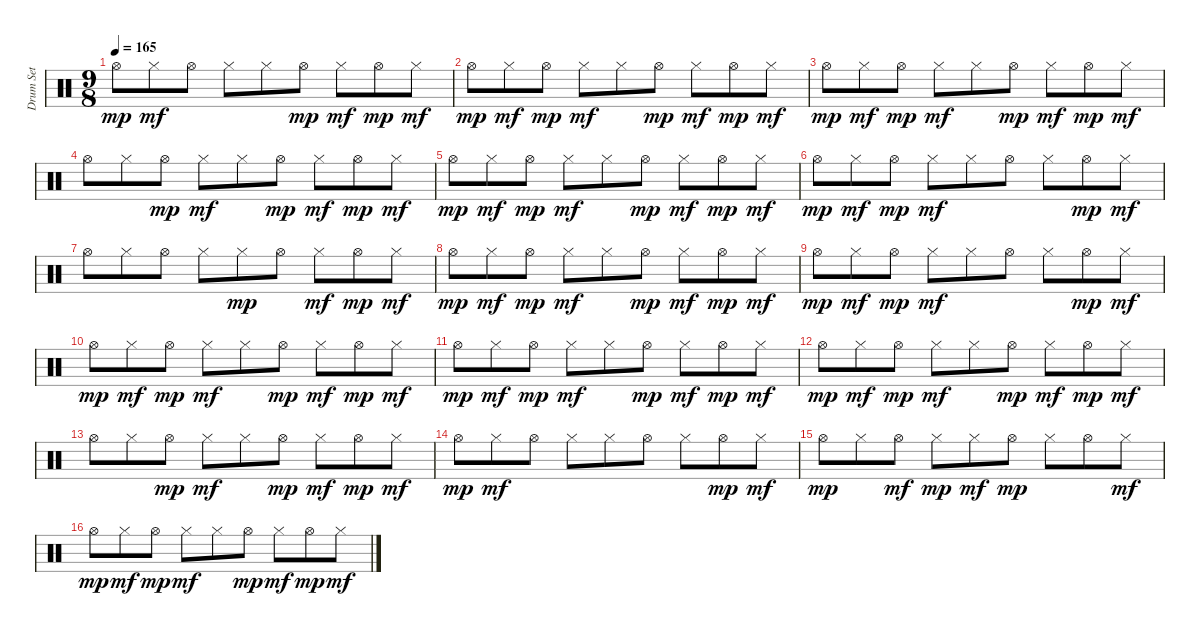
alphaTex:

\track ("Drum Set" "Drum Set") {instrument percussion}
\staff {score}
\articulation defaults
\ts (9 8)
\tempo 165
\clef neutral
\ks c "Hi-Hat (open)".8{dy mp} "Hi-Hat (closed)".8{dy mf} "Hi-Hat (open)".8 "Hi-Hat (closed)".8 "Hi-Hat (closed)".8 "Hi-Hat (open)".8{dy mp} "Hi-Hat (closed)".8{dy mf} "Hi-Hat (open)".8{dy mp} "Hi-Hat (closed)".8{dy mf}
|
"Hi-Hat (open)".8{dy mp} "Hi-Hat (closed)".8{dy mf} "Hi-Hat (open)".8{dy mp} "Hi-Hat (closed)".8{dy mf} "Hi-Hat (closed)".8 "Hi-Hat (open)".8{dy mp} "Hi-Hat (closed)".8{dy mf} "Hi-Hat (open)".8{dy mp} "Hi-Hat (closed)".8{dy mf} |
"Hi-Hat (open)".8{dy mp} "Hi-Hat (closed)".8{dy mf} "Hi-Hat (open)".8{dy mp} "Hi-Hat (closed)".8{dy mf} "Hi-Hat (closed)".8 "Hi-Hat (open)".8{dy mp} "Hi-Hat (closed)".8{dy mf} "Hi-Hat (open)".8{dy mp} "Hi-Hat (closed)".8{dy mf} |
"Hi-Hat (open)".8 "Hi-Hat (closed)".8 "Hi-Hat (open)".8{dy mp} "Hi-Hat (closed)".8{dy mf} "Hi-Hat (closed)".8 "Hi-Hat (open)".8{dy mp} "Hi-Hat (closed)".8{dy mf} "Hi-Hat (open)".8{dy mp} "Hi-Hat (closed)".8{dy mf} |
"Hi-Hat (open)".8{dy mp} "Hi-Hat (closed)".8{dy mf} "Hi-Hat (open)".8{dy mp} "Hi-Hat (closed)".8{dy mf} "Hi-Hat (closed)".8 "Hi-Hat (open)".8{dy mp} "Hi-Hat (closed)".8{dy mf} "Hi-Hat (open)".8{dy mp} "Hi-Hat (closed)".8{dy mf} |
"Hi-Hat (open)".8{dy mp} "Hi-Hat (closed)".8{dy mf} "Hi-Hat (open)".8{dy mp} "Hi-Hat (closed)".8{dy mf} "Hi-Hat (closed)".8 "Hi-Hat (open)".8 "Hi-Hat (closed)".8 "Hi-Hat (open)".8{dy mp} "Hi-Hat (closed)".8{dy mf} |
"Hi-Hat (open)".8 "Hi-Hat (closed)".8 "Hi-Hat (open)".8 "Hi-Hat (closed)".8 "Hi-Hat (closed)".8{dy mp} "Hi-Hat (open)".8 "Hi-Hat (closed)".8{dy mf} "Hi-Hat (open)".8{dy mp} "Hi-Hat (closed)".8{dy mf} |
"Hi-Hat (open)".8{dy mp} "Hi-Hat (closed)".8{dy mf} "Hi-Hat (open)".8{dy mp} "Hi-Hat (closed)".8{dy mf} "Hi-Hat (closed)".8 "Hi-Hat (open)".8{dy mp} "Hi-Hat (closed)".8{dy mf} "Hi-Hat (open)".8{dy mp} "Hi-Hat (closed)".8{dy mf} |
"Hi-Hat (open)".8{dy mp} "Hi-Hat (closed)".8{dy mf} "Hi-Hat (open)".8{dy mp} "Hi-Hat (closed)".8{dy mf} "Hi-Hat (closed)".8 "Hi-Hat (open)".8 "Hi-Hat (closed)".8 "Hi-Hat (open)".8{dy mp} "Hi-Hat (closed)".8{dy mf} |
"Hi-Hat (open)".8{dy mp} "Hi-Hat (closed)".8{dy mf} "Hi-Hat (open)".8{dy mp} "Hi-Hat (closed)".8{dy mf} "Hi-Hat (closed)".8 "Hi-Hat (open)".8{dy mp} "Hi-Hat (closed)".8{dy mf} "Hi-Hat (open)".8{dy mp} "Hi-Hat (closed)".8{dy mf} |
"Hi-Hat (open)".8{dy mp} "Hi-Hat (closed)".8{dy mf} "Hi-Hat (open)".8{dy mp} "Hi-Hat (closed)".8{dy mf} "Hi-Hat (closed)".8 "Hi-Hat (open)".8{dy mp} "Hi-Hat (closed)".8{dy mf} "Hi-Hat (open)".8{dy mp} "Hi-Hat (closed)".8{dy mf} |
"Hi-Hat (open)".8{dy mp} "Hi-Hat (closed)".8{dy mf} "Hi-Hat (open)".8{dy mp} "Hi-Hat (closed)".8{dy mf} "Hi-Hat (closed)".8 "Hi-Hat (open)".8{dy mp} "Hi-Hat (closed)".8{dy mf} "Hi-Hat (open)".8{dy mp} "Hi-Hat (closed)".8{dy mf} |
"Hi-Hat (open)".8 "Hi-Hat (closed)".8 "Hi-Hat (open)".8{dy mp} "Hi-Hat (closed)".8{dy mf} "Hi-Hat (closed)".8 "Hi-Hat (open)".8{dy mp} "Hi-Hat (closed)".8{dy mf} "Hi-Hat (open)".8{dy mp} "Hi-Hat (closed)".8{dy mf} |
"Hi-Hat (open)".8{dy mp} "Hi-Hat (closed)".8{dy mf} "Hi-Hat (open)".8 "Hi-Hat (closed)".8 "Hi-Hat (closed)".8 "Hi-Hat (open)".8 "Hi-Hat (closed)".8 "Hi-Hat (open)".8{dy mp} "Hi-Hat (closed)".8{dy mf} |
"Hi-Hat (open)".8{dy mp} "Hi-Hat (closed)".8 "Hi-Hat (open)".8{dy mf} "Hi-Hat (closed)".8{dy mp} "Hi-Hat (closed)".8{dy mf} "Hi-Hat (open)".8{dy mp} "Hi-Hat (closed)".8 "Hi-Hat (open)".8 "Hi-Hat (closed)".8{dy mf} |
"Hi-Hat (open)".8{dy mp} "Hi-Hat (closed)".8{dy mf} "Hi-Hat (open)".8{dy mp} "Hi-Hat (closed)".8{dy mf} "Hi-Hat (closed)".8 "Hi-Hat (open)".8{dy mp} "Hi-Hat (closed)".8{dy mf} "Hi-Hat (open)".8{dy mp} "Hi-Hat (closed)".8{dy mf}
